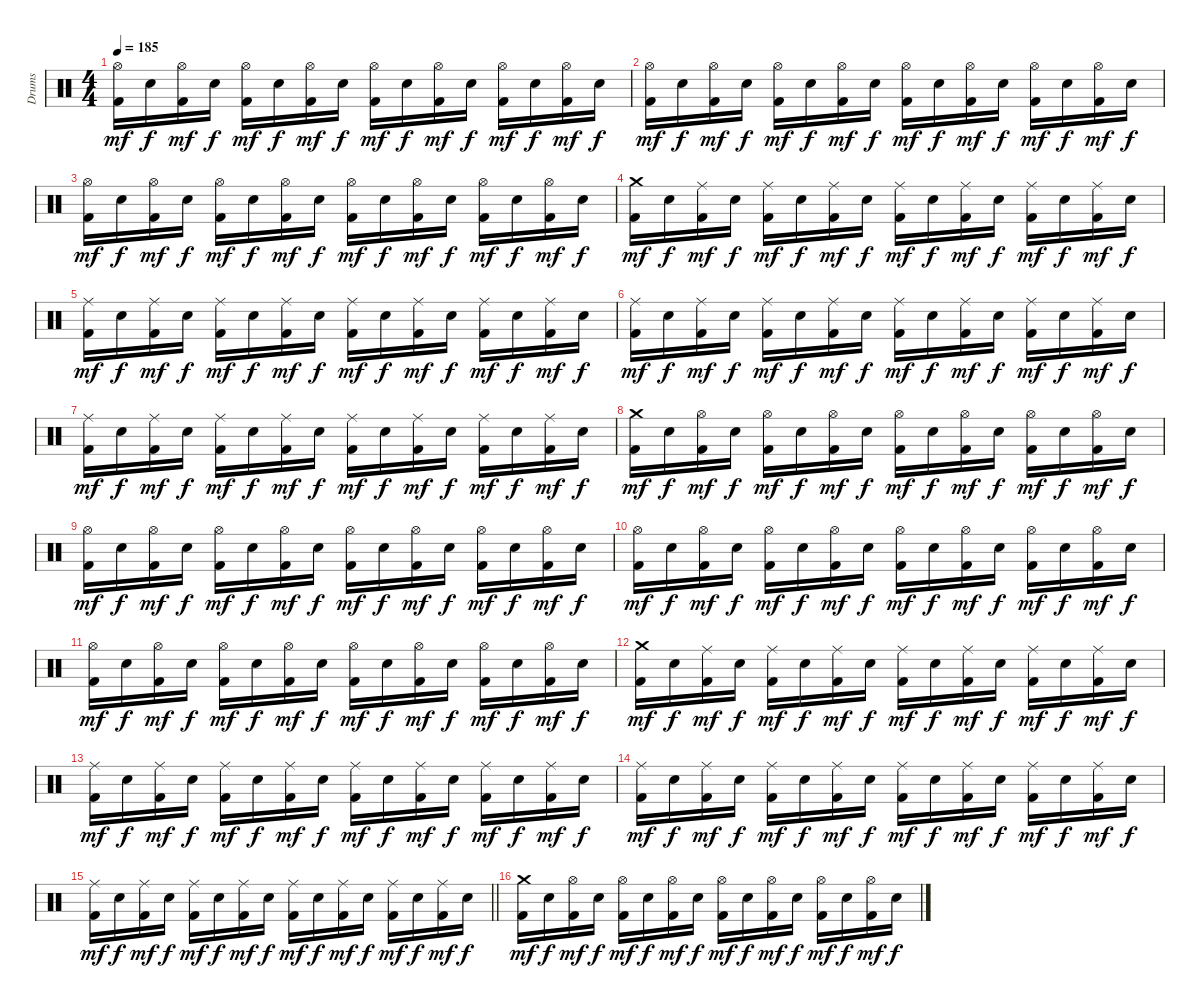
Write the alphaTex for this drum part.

\track ("Drums" "Drums") {instrument percussion}
\staff {score}
\articulation defaults
\ts (4 4)
\tempo 185
\clef neutral
\ks c
("Hi-Hat (open)" "Kick (hit) 2").16{dy mf} "Electric Snare (hit)".16{dy f} ("Hi-Hat (open)" "Kick (hit) 2").16{dy mf} "Electric Snare (hit)".16{dy f} ("Hi-Hat (open)" "Kick (hit) 2").16{dy mf} "Electric Snare (hit)".16{dy f} ("Hi-Hat (open)" "Kick (hit) 2").16{dy mf} "Electric Snare (hit)".16{dy f} ("Hi-Hat (open)" "Kick (hit) 2").16{dy mf} "Electric Snare (hit)".16{dy f} ("Hi-Hat (open)" "Kick (hit) 2").16{dy mf} "Electric Snare (hit)".16{dy f} ("Hi-Hat (open)" "Kick (hit) 2").16{dy mf} "Electric Snare (hit)".16{dy f} ("Hi-Hat (open)" "Kick (hit) 2").16{dy mf} "Electric Snare (hit)".16{dy f} |
("Hi-Hat (open)" "Kick (hit) 2").16{dy mf} "Electric Snare (hit)".16{dy f} ("Hi-Hat (open)" "Kick (hit) 2").16{dy mf} "Electric Snare (hit)".16{dy f} ("Hi-Hat (open)" "Kick (hit) 2").16{dy mf} "Electric Snare (hit)".16{dy f} ("Hi-Hat (open)" "Kick (hit) 2").16{dy mf} "Electric Snare (hit)".16{dy f} ("Hi-Hat (open)" "Kick (hit) 2").16{dy mf} "Electric Snare (hit)".16{dy f} ("Hi-Hat (open)" "Kick (hit) 2").16{dy mf} "Electric Snare (hit)".16{dy f} ("Hi-Hat (open)" "Kick (hit) 2").16{dy mf} "Electric Snare (hit)".16{dy f} ("Hi-Hat (open)" "Kick (hit) 2").16{dy mf} "Electric Snare (hit)".16{dy f} |
("Hi-Hat (open)" "Kick (hit) 2").16{dy mf} "Electric Snare (hit)".16{dy f} ("Hi-Hat (open)" "Kick (hit) 2").16{dy mf} "Electric Snare (hit)".16{dy f} ("Hi-Hat (open)" "Kick (hit) 2").16{dy mf} "Electric Snare (hit)".16{dy f} ("Hi-Hat (open)" "Kick (hit) 2").16{dy mf} "Electric Snare (hit)".16{dy f} ("Hi-Hat (open)" "Kick (hit) 2").16{dy mf} "Electric Snare (hit)".16{dy f} ("Hi-Hat (open)" "Kick (hit) 2").16{dy mf} "Electric Snare (hit)".16{dy f} ("Hi-Hat (open)" "Kick (hit) 2").16{dy mf} "Electric Snare (hit)".16{dy f} ("Hi-Hat (open)" "Kick (hit) 2").16{dy mf} "Electric Snare (hit)".16{dy f} |
("Crash medium (hit)" "Kick (hit) 2").16{dy mf} "Electric Snare (hit)".16{dy f} ("Ride (middle)" "Kick (hit) 2").16{dy mf} "Electric Snare (hit)".16{dy f} ("Ride (middle)" "Kick (hit) 2").16{dy mf} "Electric Snare (hit)".16{dy f} ("Ride (middle)" "Kick (hit) 2").16{dy mf} "Electric Snare (hit)".16{dy f} ("Ride (middle)" "Kick (hit) 2").16{dy mf} "Electric Snare (hit)".16{dy f} ("Ride (middle)" "Kick (hit) 2").16{dy mf} "Electric Snare (hit)".16{dy f} ("Ride (middle)" "Kick (hit) 2").16{dy mf} "Electric Snare (hit)".16{dy f} ("Ride (middle)" "Kick (hit) 2").16{dy mf} "Electric Snare (hit)".16{dy f} |
("Ride (middle)" "Kick (hit) 2").16{dy mf} "Electric Snare (hit)".16{dy f} ("Ride (middle)" "Kick (hit) 2").16{dy mf} "Electric Snare (hit)".16{dy f} ("Ride (middle)" "Kick (hit) 2").16{dy mf} "Electric Snare (hit)".16{dy f} ("Ride (middle)" "Kick (hit) 2").16{dy mf} "Electric Snare (hit)".16{dy f} ("Ride (middle)" "Kick (hit) 2").16{dy mf} "Electric Snare (hit)".16{dy f} ("Ride (middle)" "Kick (hit) 2").16{dy mf} "Electric Snare (hit)".16{dy f} ("Ride (middle)" "Kick (hit) 2").16{dy mf} "Electric Snare (hit)".16{dy f} ("Ride (middle)" "Kick (hit) 2").16{dy mf} "Electric Snare (hit)".16{dy f} |
("Ride (middle)" "Kick (hit) 2").16{dy mf} "Electric Snare (hit)".16{dy f} ("Ride (middle)" "Kick (hit) 2").16{dy mf} "Electric Snare (hit)".16{dy f} ("Ride (middle)" "Kick (hit) 2").16{dy mf} "Electric Snare (hit)".16{dy f} ("Ride (middle)" "Kick (hit) 2").16{dy mf} "Electric Snare (hit)".16{dy f} ("Ride (middle)" "Kick (hit) 2").16{dy mf} "Electric Snare (hit)".16{dy f} ("Ride (middle)" "Kick (hit) 2").16{dy mf} "Electric Snare (hit)".16{dy f} ("Ride (middle)" "Kick (hit) 2").16{dy mf} "Electric Snare (hit)".16{dy f} ("Ride (middle)" "Kick (hit) 2").16{dy mf} "Electric Snare (hit)".16{dy f} |
("Ride (middle)" "Kick (hit) 2").16{dy mf} "Electric Snare (hit)".16{dy f} ("Ride (middle)" "Kick (hit) 2").16{dy mf} "Electric Snare (hit)".16{dy f} ("Ride (middle)" "Kick (hit) 2").16{dy mf} "Electric Snare (hit)".16{dy f} ("Ride (middle)" "Kick (hit) 2").16{dy mf} "Electric Snare (hit)".16{dy f} ("Ride (middle)" "Kick (hit) 2").16{dy mf} "Electric Snare (hit)".16{dy f} ("Ride (middle)" "Kick (hit) 2").16{dy mf} "Electric Snare (hit)".16{dy f} ("Ride (middle)" "Kick (hit) 2").16{dy mf} "Electric Snare (hit)".16{dy f} ("Ride (middle)" "Kick (hit) 2").16{dy mf} "Electric Snare (hit)".16{dy f} |
("Crash medium (hit)" "Kick (hit) 2").16{dy mf} "Electric Snare (hit)".16{dy f} ("Hi-Hat (open)" "Kick (hit) 2").16{dy mf} "Electric Snare (hit)".16{dy f} ("Hi-Hat (open)" "Kick (hit) 2").16{dy mf} "Electric Snare (hit)".16{dy f} ("Hi-Hat (open)" "Kick (hit) 2").16{dy mf} "Electric Snare (hit)".16{dy f} ("Hi-Hat (open)" "Kick (hit) 2").16{dy mf} "Electric Snare (hit)".16{dy f} ("Hi-Hat (open)" "Kick (hit) 2").16{dy mf} "Electric Snare (hit)".16{dy f} ("Hi-Hat (open)" "Kick (hit) 2").16{dy mf} "Electric Snare (hit)".16{dy f} ("Hi-Hat (open)" "Kick (hit) 2").16{dy mf} "Electric Snare (hit)".16{dy f} |
("Hi-Hat (open)" "Kick (hit) 2").16{dy mf} "Electric Snare (hit)".16{dy f} ("Hi-Hat (open)" "Kick (hit) 2").16{dy mf} "Electric Snare (hit)".16{dy f} ("Hi-Hat (open)" "Kick (hit) 2").16{dy mf} "Electric Snare (hit)".16{dy f} ("Hi-Hat (open)" "Kick (hit) 2").16{dy mf} "Electric Snare (hit)".16{dy f} ("Hi-Hat (open)" "Kick (hit) 2").16{dy mf} "Electric Snare (hit)".16{dy f} ("Hi-Hat (open)" "Kick (hit) 2").16{dy mf} "Electric Snare (hit)".16{dy f} ("Hi-Hat (open)" "Kick (hit) 2").16{dy mf} "Electric Snare (hit)".16{dy f} ("Hi-Hat (open)" "Kick (hit) 2").16{dy mf} "Electric Snare (hit)".16{dy f} |
("Hi-Hat (open)" "Kick (hit) 2").16{dy mf} "Electric Snare (hit)".16{dy f} ("Hi-Hat (open)" "Kick (hit) 2").16{dy mf} "Electric Snare (hit)".16{dy f} ("Hi-Hat (open)" "Kick (hit) 2").16{dy mf} "Electric Snare (hit)".16{dy f} ("Hi-Hat (open)" "Kick (hit) 2").16{dy mf} "Electric Snare (hit)".16{dy f} ("Hi-Hat (open)" "Kick (hit) 2").16{dy mf} "Electric Snare (hit)".16{dy f} ("Hi-Hat (open)" "Kick (hit) 2").16{dy mf} "Electric Snare (hit)".16{dy f} ("Hi-Hat (open)" "Kick (hit) 2").16{dy mf} "Electric Snare (hit)".16{dy f} ("Hi-Hat (open)" "Kick (hit) 2").16{dy mf} "Electric Snare (hit)".16{dy f} |
("Hi-Hat (open)" "Kick (hit) 2").16{dy mf} "Electric Snare (hit)".16{dy f} ("Hi-Hat (open)" "Kick (hit) 2").16{dy mf} "Electric Snare (hit)".16{dy f} ("Hi-Hat (open)" "Kick (hit) 2").16{dy mf} "Electric Snare (hit)".16{dy f} ("Hi-Hat (open)" "Kick (hit) 2").16{dy mf} "Electric Snare (hit)".16{dy f} ("Hi-Hat (open)" "Kick (hit) 2").16{dy mf} "Electric Snare (hit)".16{dy f} ("Hi-Hat (open)" "Kick (hit) 2").16{dy mf} "Electric Snare (hit)".16{dy f} ("Hi-Hat (open)" "Kick (hit) 2").16{dy mf} "Electric Snare (hit)".16{dy f} ("Hi-Hat (open)" "Kick (hit) 2").16{dy mf} "Electric Snare (hit)".16{dy f} |
("Crash medium (hit)" "Kick (hit) 2").16{dy mf} "Electric Snare (hit)".16{dy f} ("Ride (middle)" "Kick (hit) 2").16{dy mf} "Electric Snare (hit)".16{dy f} ("Ride (middle)" "Kick (hit) 2").16{dy mf} "Electric Snare (hit)".16{dy f} ("Ride (middle)" "Kick (hit) 2").16{dy mf} "Electric Snare (hit)".16{dy f} ("Ride (middle)" "Kick (hit) 2").16{dy mf} "Electric Snare (hit)".16{dy f} ("Ride (middle)" "Kick (hit) 2").16{dy mf} "Electric Snare (hit)".16{dy f} ("Ride (middle)" "Kick (hit) 2").16{dy mf} "Electric Snare (hit)".16{dy f} ("Ride (middle)" "Kick (hit) 2").16{dy mf} "Electric Snare (hit)".16{dy f} |
("Ride (middle)" "Kick (hit) 2").16{dy mf} "Electric Snare (hit)".16{dy f} ("Ride (middle)" "Kick (hit) 2").16{dy mf} "Electric Snare (hit)".16{dy f} ("Ride (middle)" "Kick (hit) 2").16{dy mf} "Electric Snare (hit)".16{dy f} ("Ride (middle)" "Kick (hit) 2").16{dy mf} "Electric Snare (hit)".16{dy f} ("Ride (middle)" "Kick (hit) 2").16{dy mf} "Electric Snare (hit)".16{dy f} ("Ride (middle)" "Kick (hit) 2").16{dy mf} "Electric Snare (hit)".16{dy f} ("Ride (middle)" "Kick (hit) 2").16{dy mf} "Electric Snare (hit)".16{dy f} ("Ride (middle)" "Kick (hit) 2").16{dy mf} "Electric Snare (hit)".16{dy f} |
("Ride (middle)" "Kick (hit) 2").16{dy mf} "Electric Snare (hit)".16{dy f} ("Ride (middle)" "Kick (hit) 2").16{dy mf} "Electric Snare (hit)".16{dy f} ("Ride (middle)" "Kick (hit) 2").16{dy mf} "Electric Snare (hit)".16{dy f} ("Ride (middle)" "Kick (hit) 2").16{dy mf} "Electric Snare (hit)".16{dy f} ("Ride (middle)" "Kick (hit) 2").16{dy mf} "Electric Snare (hit)".16{dy f} ("Ride (middle)" "Kick (hit) 2").16{dy mf} "Electric Snare (hit)".16{dy f} ("Ride (middle)" "Kick (hit) 2").16{dy mf} "Electric Snare (hit)".16{dy f} ("Ride (middle)" "Kick (hit) 2").16{dy mf} "Electric Snare (hit)".16{dy f} |
\barLineRight lightlight
("Ride (middle)" "Kick (hit) 2").16{dy mf} "Electric Snare (hit)".16{dy f} ("Ride (middle)" "Kick (hit) 2").16{dy mf} "Electric Snare (hit)".16{dy f} ("Ride (middle)" "Kick (hit) 2").16{dy mf} "Electric Snare (hit)".16{dy f} ("Ride (middle)" "Kick (hit) 2").16{dy mf} "Electric Snare (hit)".16{dy f} ("Ride (middle)" "Kick (hit) 2").16{dy mf} "Electric Snare (hit)".16{dy f} ("Ride (middle)" "Kick (hit) 2").16{dy mf} "Electric Snare (hit)".16{dy f} ("Ride (middle)" "Kick (hit) 2").16{dy mf} "Electric Snare (hit)".16{dy f} ("Ride (middle)" "Kick (hit) 2").16{dy mf} "Electric Snare (hit)".16{dy f} |
\section ("" "")
("Crash medium (hit)" "Kick (hit) 2").16{dy mf} "Electric Snare (hit)".16{dy f} ("Hi-Hat (open)" "Kick (hit) 2").16{dy mf} "Electric Snare (hit)".16{dy f} ("Hi-Hat (open)" "Kick (hit) 2").16{dy mf} "Electric Snare (hit)".16{dy f} ("Hi-Hat (open)" "Kick (hit) 2").16{dy mf} "Electric Snare (hit)".16{dy f} ("Hi-Hat (open)" "Kick (hit) 2").16{dy mf} "Electric Snare (hit)".16{dy f} ("Hi-Hat (open)" "Kick (hit) 2").16{dy mf} "Electric Snare (hit)".16{dy f} ("Hi-Hat (open)" "Kick (hit) 2").16{dy mf} "Electric Snare (hit)".16{dy f} ("Hi-Hat (open)" "Kick (hit) 2").16{dy mf} "Electric Snare (hit)".16{dy f}
